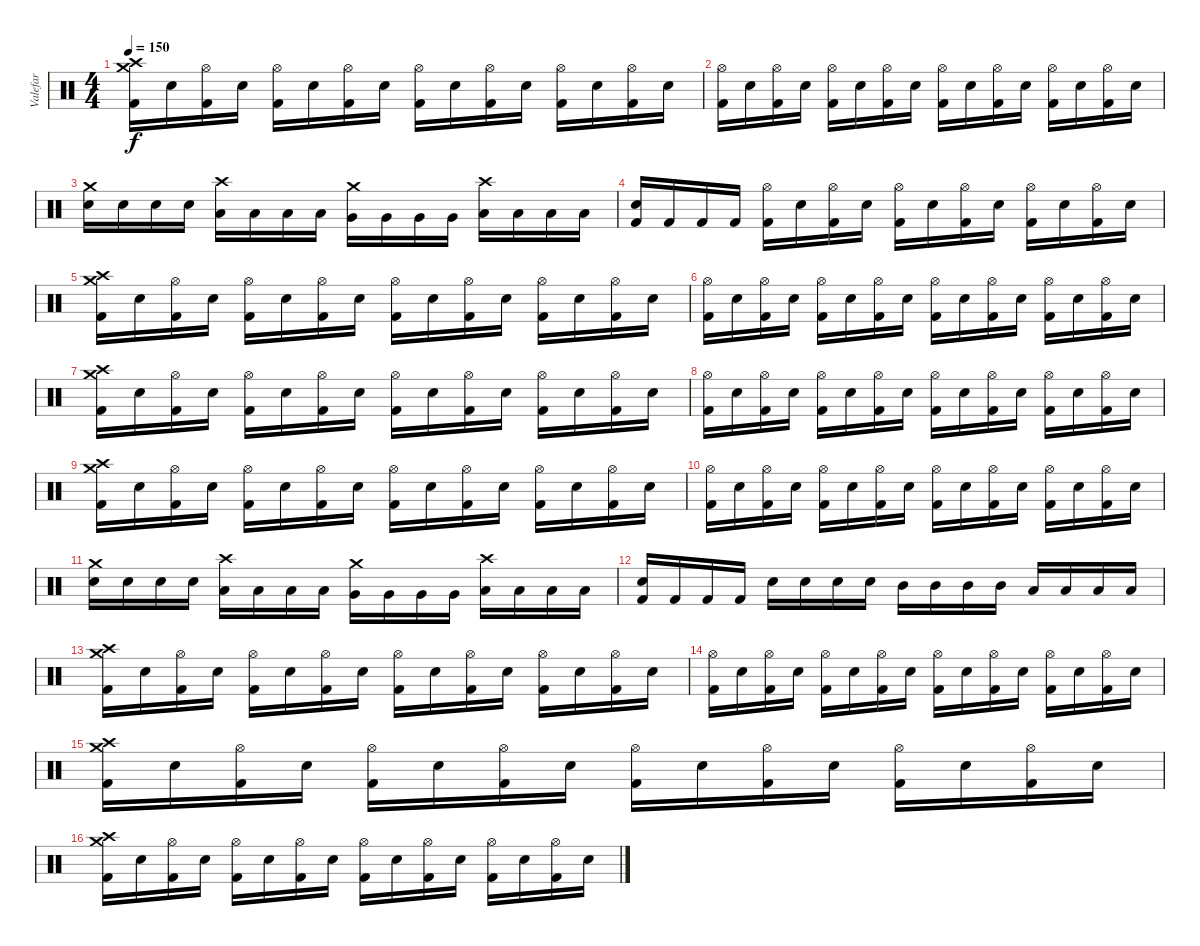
\track ("Valefar" "Valefar") {instrument percussion}
\staff {score}
\articulation defaults
\ts (4 4)
\tempo 150
\clef neutral
\ks c
("Crash medium (hit)" "Crash high (hit)" "Kick (hit) 2").16{dy f} "Electric Snare (hit)".16 ("Hi-Hat (open)" "Kick (hit) 2").16 "Electric Snare (hit)".16 ("Hi-Hat (open)" "Kick (hit) 2").16 "Electric Snare (hit)".16 ("Hi-Hat (open)" "Kick (hit) 2").16 "Electric Snare (hit)".16 ("Hi-Hat (open)" "Kick (hit) 2").16 "Electric Snare (hit)".16 ("Hi-Hat (open)" "Kick (hit) 2").16 "Electric Snare (hit)".16 ("Hi-Hat (open)" "Kick (hit) 2").16 "Electric Snare (hit)".16 ("Hi-Hat (open)" "Kick (hit) 2").16 "Electric Snare (hit)".16 |
("Hi-Hat (open)" "Kick (hit) 2").16 "Electric Snare (hit)".16 ("Hi-Hat (open)" "Kick (hit) 2").16 "Electric Snare (hit)".16 ("Hi-Hat (open)" "Kick (hit) 2").16 "Electric Snare (hit)".16 ("Hi-Hat (open)" "Kick (hit) 2").16 "Electric Snare (hit)".16 ("Hi-Hat (open)" "Kick (hit) 2").16 "Electric Snare (hit)".16 ("Hi-Hat (open)" "Kick (hit) 2").16 "Electric Snare (hit)".16 ("Hi-Hat (open)" "Kick (hit) 2").16 "Electric Snare (hit)".16 ("Hi-Hat (open)" "Kick (hit) 2").16 "Electric Snare (hit)".16 |
("Crash medium (hit)" "Electric Snare (hit)").16 "Electric Snare (hit)".16 "Electric Snare (hit)".16 "Electric Snare (hit)".16 ("Crash high (hit)" "Low Tom (hit)").16 "Low Tom (hit)".16 "Low Tom (hit)".16 "Low Tom (hit)".16 ("Crash medium (hit)" "Very Low Tom (hit)").16 "Very Low Tom (hit)".16 "Very Low Tom (hit)".16 "Very Low Tom (hit)".16 ("Crash high (hit)" "Low Floor Tom (hit)").16 "Low Floor Tom (hit)".16 "Low Floor Tom (hit)".16 "Low Floor Tom (hit)".16 |
("Electric Snare (hit)" "Kick (hit) 2").16 "Kick (hit) 2".16 "Kick (hit) 2".16 "Kick (hit) 2".16 ("Hi-Hat (open)" "Kick (hit) 2").16 "Electric Snare (hit)".16 ("Hi-Hat (open)" "Kick (hit) 2").16 "Electric Snare (hit)".16 ("Hi-Hat (open)" "Kick (hit) 2").16 "Electric Snare (hit)".16 ("Hi-Hat (open)" "Kick (hit) 2").16 "Electric Snare (hit)".16 ("Hi-Hat (open)" "Kick (hit) 2").16 "Electric Snare (hit)".16 ("Hi-Hat (open)" "Kick (hit) 2").16 "Electric Snare (hit)".16 |
("Crash medium (hit)" "Crash high (hit)" "Kick (hit) 2").16 "Electric Snare (hit)".16 ("Hi-Hat (open)" "Kick (hit) 2").16 "Electric Snare (hit)".16 ("Hi-Hat (open)" "Kick (hit) 2").16 "Electric Snare (hit)".16 ("Hi-Hat (open)" "Kick (hit) 2").16 "Electric Snare (hit)".16 ("Hi-Hat (open)" "Kick (hit) 2").16 "Electric Snare (hit)".16 ("Hi-Hat (open)" "Kick (hit) 2").16 "Electric Snare (hit)".16 ("Hi-Hat (open)" "Kick (hit) 2").16 "Electric Snare (hit)".16 ("Hi-Hat (open)" "Kick (hit) 2").16 "Electric Snare (hit)".16 |
("Hi-Hat (open)" "Kick (hit) 2").16 "Electric Snare (hit)".16 ("Hi-Hat (open)" "Kick (hit) 2").16 "Electric Snare (hit)".16 ("Hi-Hat (open)" "Kick (hit) 2").16 "Electric Snare (hit)".16 ("Hi-Hat (open)" "Kick (hit) 2").16 "Electric Snare (hit)".16 ("Hi-Hat (open)" "Kick (hit) 2").16 "Electric Snare (hit)".16 ("Hi-Hat (open)" "Kick (hit) 2").16 "Electric Snare (hit)".16 ("Hi-Hat (open)" "Kick (hit) 2").16 "Electric Snare (hit)".16 ("Hi-Hat (open)" "Kick (hit) 2").16 "Electric Snare (hit)".16 |
("Crash medium (hit)" "Crash high (hit)" "Kick (hit) 2").16 "Electric Snare (hit)".16 ("Hi-Hat (open)" "Kick (hit) 2").16 "Electric Snare (hit)".16 ("Hi-Hat (open)" "Kick (hit) 2").16 "Electric Snare (hit)".16 ("Hi-Hat (open)" "Kick (hit) 2").16 "Electric Snare (hit)".16 ("Hi-Hat (open)" "Kick (hit) 2").16 "Electric Snare (hit)".16 ("Hi-Hat (open)" "Kick (hit) 2").16 "Electric Snare (hit)".16 ("Hi-Hat (open)" "Kick (hit) 2").16 "Electric Snare (hit)".16 ("Hi-Hat (open)" "Kick (hit) 2").16 "Electric Snare (hit)".16 |
("Hi-Hat (open)" "Kick (hit) 2").16 "Electric Snare (hit)".16 ("Hi-Hat (open)" "Kick (hit) 2").16 "Electric Snare (hit)".16 ("Hi-Hat (open)" "Kick (hit) 2").16 "Electric Snare (hit)".16 ("Hi-Hat (open)" "Kick (hit) 2").16 "Electric Snare (hit)".16 ("Hi-Hat (open)" "Kick (hit) 2").16 "Electric Snare (hit)".16 ("Hi-Hat (open)" "Kick (hit) 2").16 "Electric Snare (hit)".16 ("Hi-Hat (open)" "Kick (hit) 2").16 "Electric Snare (hit)".16 ("Hi-Hat (open)" "Kick (hit) 2").16 "Electric Snare (hit)".16 |
("Crash medium (hit)" "Crash high (hit)" "Kick (hit) 2").16 "Electric Snare (hit)".16 ("Hi-Hat (open)" "Kick (hit) 2").16 "Electric Snare (hit)".16 ("Hi-Hat (open)" "Kick (hit) 2").16 "Electric Snare (hit)".16 ("Hi-Hat (open)" "Kick (hit) 2").16 "Electric Snare (hit)".16 ("Hi-Hat (open)" "Kick (hit) 2").16 "Electric Snare (hit)".16 ("Hi-Hat (open)" "Kick (hit) 2").16 "Electric Snare (hit)".16 ("Hi-Hat (open)" "Kick (hit) 2").16 "Electric Snare (hit)".16 ("Hi-Hat (open)" "Kick (hit) 2").16 "Electric Snare (hit)".16 |
("Hi-Hat (open)" "Kick (hit) 2").16 "Electric Snare (hit)".16 ("Hi-Hat (open)" "Kick (hit) 2").16 "Electric Snare (hit)".16 ("Hi-Hat (open)" "Kick (hit) 2").16 "Electric Snare (hit)".16 ("Hi-Hat (open)" "Kick (hit) 2").16 "Electric Snare (hit)".16 ("Hi-Hat (open)" "Kick (hit) 2").16 "Electric Snare (hit)".16 ("Hi-Hat (open)" "Kick (hit) 2").16 "Electric Snare (hit)".16 ("Hi-Hat (open)" "Kick (hit) 2").16 "Electric Snare (hit)".16 ("Hi-Hat (open)" "Kick (hit) 2").16 "Electric Snare (hit)".16 |
("Crash medium (hit)" "Electric Snare (hit)").16 "Electric Snare (hit)".16 "Electric Snare (hit)".16 "Electric Snare (hit)".16 ("Crash high (hit)" "Low Tom (hit)").16 "Low Tom (hit)".16 "Low Tom (hit)".16 "Low Tom (hit)".16 ("Crash medium (hit)" "Very Low Tom (hit)").16 "Very Low Tom (hit)".16 "Very Low Tom (hit)".16 "Very Low Tom (hit)".16 ("Crash high (hit)" "Low Floor Tom (hit)").16 "Low Floor Tom (hit)".16 "Low Floor Tom (hit)".16 "Low Floor Tom (hit)".16 |
("Electric Snare (hit)" "Kick (hit) 2").16 "Kick (hit) 2".16 "Kick (hit) 2".16 "Kick (hit) 2".16 "Electric Snare (hit)".16 "Electric Snare (hit)".16 "Electric Snare (hit)".16 "Electric Snare (hit)".16 "Mid Tom (hit)".16 "Mid Tom (hit)".16 "Mid Tom (hit)".16 "Mid Tom (hit)".16 "Low Tom (hit)".16 "Low Tom (hit)".16 "Low Tom (hit)".16 "Low Tom (hit)".16 |
("Crash medium (hit)" "Crash high (hit)" "Kick (hit) 2").16 "Electric Snare (hit)".16 ("Hi-Hat (open)" "Kick (hit) 2").16 "Electric Snare (hit)".16 ("Hi-Hat (open)" "Kick (hit) 2").16 "Electric Snare (hit)".16 ("Hi-Hat (open)" "Kick (hit) 2").16 "Electric Snare (hit)".16 ("Hi-Hat (open)" "Kick (hit) 2").16 "Electric Snare (hit)".16 ("Hi-Hat (open)" "Kick (hit) 2").16 "Electric Snare (hit)".16 ("Hi-Hat (open)" "Kick (hit) 2").16 "Electric Snare (hit)".16 ("Hi-Hat (open)" "Kick (hit) 2").16 "Electric Snare (hit)".16 |
("Hi-Hat (open)" "Kick (hit) 2").16 "Electric Snare (hit)".16 ("Hi-Hat (open)" "Kick (hit) 2").16 "Electric Snare (hit)".16 ("Hi-Hat (open)" "Kick (hit) 2").16 "Electric Snare (hit)".16 ("Hi-Hat (open)" "Kick (hit) 2").16 "Electric Snare (hit)".16 ("Hi-Hat (open)" "Kick (hit) 2").16 "Electric Snare (hit)".16 ("Hi-Hat (open)" "Kick (hit) 2").16 "Electric Snare (hit)".16 ("Hi-Hat (open)" "Kick (hit) 2").16 "Electric Snare (hit)".16 ("Hi-Hat (open)" "Kick (hit) 2").16 "Electric Snare (hit)".16 |
("Crash medium (hit)" "Crash high (hit)" "Kick (hit) 2").16 "Electric Snare (hit)".16 ("Hi-Hat (open)" "Kick (hit) 2").16 "Electric Snare (hit)".16 ("Hi-Hat (open)" "Kick (hit) 2").16 "Electric Snare (hit)".16 ("Hi-Hat (open)" "Kick (hit) 2").16 "Electric Snare (hit)".16 ("Hi-Hat (open)" "Kick (hit) 2").16 "Electric Snare (hit)".16 ("Hi-Hat (open)" "Kick (hit) 2").16 "Electric Snare (hit)".16 ("Hi-Hat (open)" "Kick (hit) 2").16 "Electric Snare (hit)".16 ("Hi-Hat (open)" "Kick (hit) 2").16 "Electric Snare (hit)".16 |
("Crash medium (hit)" "Crash high (hit)" "Kick (hit) 2").16 "Electric Snare (hit)".16 ("Hi-Hat (open)" "Kick (hit) 2").16 "Electric Snare (hit)".16 ("Hi-Hat (open)" "Kick (hit) 2").16 "Electric Snare (hit)".16 ("Hi-Hat (open)" "Kick (hit) 2").16 "Electric Snare (hit)".16 ("Hi-Hat (open)" "Kick (hit) 2").16 "Electric Snare (hit)".16 ("Hi-Hat (open)" "Kick (hit) 2").16 "Electric Snare (hit)".16 ("Hi-Hat (open)" "Kick (hit) 2").16 "Electric Snare (hit)".16 ("Hi-Hat (open)" "Kick (hit) 2").16 "Electric Snare (hit)".16
